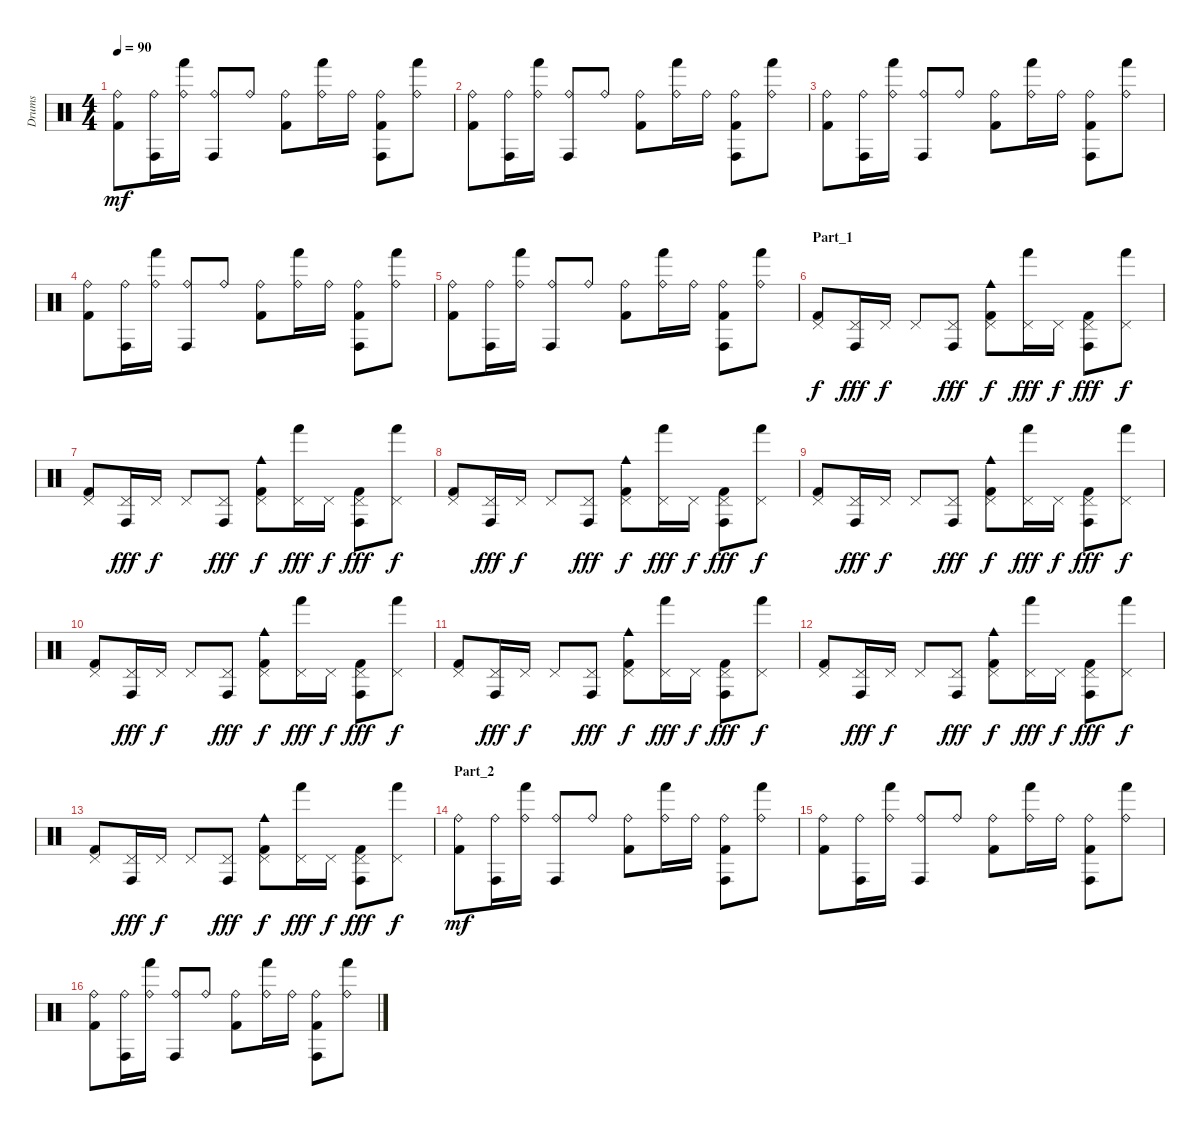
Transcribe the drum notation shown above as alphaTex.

\track (" Drums" " Drums") {instrument percussion}
\staff {score}
\articulation defaults
\ts (4 4)
\tempo 90
\clef neutral
\ks c
("Ride (bell)" "Kick (hit) 2").8{dy mf} ("Ride (bell)" "Conga high (hit)").16 ("Ride (bell)" "Hand (hit)").16 ("Ride (bell)" "Conga high (hit)").8 "Ride (bell)".8 ("Ride (bell)" "Kick (hit) 2").8 ("Ride (bell)" "Hand (hit)").16 "Ride (bell)".16 ("Ride (bell)" "Conga high (hit)" "Kick (hit) 2").8 ("Ride (bell)" "Hand (hit)").8 |
("Ride (bell)" "Kick (hit) 2").8 ("Ride (bell)" "Conga high (hit)").16 ("Ride (bell)" "Hand (hit)").16 ("Ride (bell)" "Conga high (hit)").8 "Ride (bell)".8 ("Ride (bell)" "Kick (hit) 2").8 ("Ride (bell)" "Hand (hit)").16 "Ride (bell)".16 ("Ride (bell)" "Conga high (hit)" "Kick (hit) 2").8 ("Ride (bell)" "Hand (hit)").8 |
("Ride (bell)" "Kick (hit) 2").8 ("Ride (bell)" "Conga high (hit)").16 ("Ride (bell)" "Hand (hit)").16 ("Ride (bell)" "Conga high (hit)").8 "Ride (bell)".8 ("Ride (bell)" "Kick (hit) 2").8 ("Ride (bell)" "Hand (hit)").16 "Ride (bell)".16 ("Ride (bell)" "Conga high (hit)" "Kick (hit) 2").8 ("Ride (bell)" "Hand (hit)").8 |
("Ride (bell)" "Kick (hit) 2").8 ("Ride (bell)" "Conga high (hit)").16 ("Ride (bell)" "Hand (hit)").16 ("Ride (bell)" "Conga high (hit)").8 "Ride (bell)".8 ("Ride (bell)" "Kick (hit) 2").8 ("Ride (bell)" "Hand (hit)").16 "Ride (bell)".16 ("Ride (bell)" "Conga high (hit)" "Kick (hit) 2").8 ("Ride (bell)" "Hand (hit)").8 |
("Ride (bell)" "Kick (hit) 2").8 ("Ride (bell)" "Conga high (hit)").16 ("Ride (bell)" "Hand (hit)").16 ("Ride (bell)" "Conga high (hit)").8 "Ride (bell)".8 ("Ride (bell)" "Kick (hit) 2").8 ("Ride (bell)" "Hand (hit)").16 "Ride (bell)".16 ("Ride (bell)" "Conga high (hit)" "Kick (hit) 2").8 ("Ride (bell)" "Hand (hit)").8 |
\section ("" "Part_1")
("Pedal Hi-Hat (hit)" "Kick (hit) 2").8{dy f} ("Pedal Hi-Hat (hit)" "Conga high (hit)").16{dy fff} "Pedal Hi-Hat (hit)".16{dy f} "Pedal Hi-Hat (hit)".8 ("Pedal Hi-Hat (hit)" "Conga high (hit)").8{dy fff} ("Pedal Hi-Hat (hit)" "Cowbell medium (hit)" "Kick (hit) 2").8{dy f} ("Pedal Hi-Hat (hit)" "Hand (hit)").16{dy fff} "Pedal Hi-Hat (hit)".16{dy f} ("Pedal Hi-Hat (hit)" "Conga high (hit)" "Kick (hit) 2").8{dy fff} ("Pedal Hi-Hat (hit)" "Hand (hit)").8{dy f} |
("Pedal Hi-Hat (hit)" "Kick (hit) 2").8 ("Pedal Hi-Hat (hit)" "Conga high (hit)").16{dy fff} "Pedal Hi-Hat (hit)".16{dy f} "Pedal Hi-Hat (hit)".8 ("Pedal Hi-Hat (hit)" "Conga high (hit)").8{dy fff} ("Pedal Hi-Hat (hit)" "Cowbell medium (hit)" "Kick (hit) 2").8{dy f} ("Pedal Hi-Hat (hit)" "Hand (hit)").16{dy fff} "Pedal Hi-Hat (hit)".16{dy f} ("Pedal Hi-Hat (hit)" "Conga high (hit)" "Kick (hit) 2").8{dy fff} ("Pedal Hi-Hat (hit)" "Hand (hit)").8{dy f} |
("Pedal Hi-Hat (hit)" "Kick (hit) 2").8 ("Pedal Hi-Hat (hit)" "Conga high (hit)").16{dy fff} "Pedal Hi-Hat (hit)".16{dy f} "Pedal Hi-Hat (hit)".8 ("Pedal Hi-Hat (hit)" "Conga high (hit)").8{dy fff} ("Pedal Hi-Hat (hit)" "Cowbell medium (hit)" "Kick (hit) 2").8{dy f} ("Pedal Hi-Hat (hit)" "Hand (hit)").16{dy fff} "Pedal Hi-Hat (hit)".16{dy f} ("Pedal Hi-Hat (hit)" "Conga high (hit)" "Kick (hit) 2").8{dy fff} ("Pedal Hi-Hat (hit)" "Hand (hit)").8{dy f} |
("Pedal Hi-Hat (hit)" "Kick (hit) 2").8 ("Pedal Hi-Hat (hit)" "Conga high (hit)").16{dy fff} "Pedal Hi-Hat (hit)".16{dy f} "Pedal Hi-Hat (hit)".8 ("Pedal Hi-Hat (hit)" "Conga high (hit)").8{dy fff} ("Pedal Hi-Hat (hit)" "Cowbell medium (hit)" "Kick (hit) 2").8{dy f} ("Pedal Hi-Hat (hit)" "Hand (hit)").16{dy fff} "Pedal Hi-Hat (hit)".16{dy f} ("Pedal Hi-Hat (hit)" "Conga high (hit)" "Kick (hit) 2").8{dy fff} ("Pedal Hi-Hat (hit)" "Hand (hit)").8{dy f} |
("Pedal Hi-Hat (hit)" "Kick (hit) 2").8 ("Pedal Hi-Hat (hit)" "Conga high (hit)").16{dy fff} "Pedal Hi-Hat (hit)".16{dy f} "Pedal Hi-Hat (hit)".8 ("Pedal Hi-Hat (hit)" "Conga high (hit)").8{dy fff} ("Pedal Hi-Hat (hit)" "Cowbell medium (hit)" "Kick (hit) 2").8{dy f} ("Pedal Hi-Hat (hit)" "Hand (hit)").16{dy fff} "Pedal Hi-Hat (hit)".16{dy f} ("Pedal Hi-Hat (hit)" "Conga high (hit)" "Kick (hit) 2").8{dy fff} ("Pedal Hi-Hat (hit)" "Hand (hit)").8{dy f} |
("Pedal Hi-Hat (hit)" "Kick (hit) 2").8 ("Pedal Hi-Hat (hit)" "Conga high (hit)").16{dy fff} "Pedal Hi-Hat (hit)".16{dy f} "Pedal Hi-Hat (hit)".8 ("Pedal Hi-Hat (hit)" "Conga high (hit)").8{dy fff} ("Pedal Hi-Hat (hit)" "Cowbell medium (hit)" "Kick (hit) 2").8{dy f} ("Pedal Hi-Hat (hit)" "Hand (hit)").16{dy fff} "Pedal Hi-Hat (hit)".16{dy f} ("Pedal Hi-Hat (hit)" "Conga high (hit)" "Kick (hit) 2").8{dy fff} ("Pedal Hi-Hat (hit)" "Hand (hit)").8{dy f} |
("Pedal Hi-Hat (hit)" "Kick (hit) 2").8 ("Pedal Hi-Hat (hit)" "Conga high (hit)").16{dy fff} "Pedal Hi-Hat (hit)".16{dy f} "Pedal Hi-Hat (hit)".8 ("Pedal Hi-Hat (hit)" "Conga high (hit)").8{dy fff} ("Pedal Hi-Hat (hit)" "Cowbell medium (hit)" "Kick (hit) 2").8{dy f} ("Pedal Hi-Hat (hit)" "Hand (hit)").16{dy fff} "Pedal Hi-Hat (hit)".16{dy f} ("Pedal Hi-Hat (hit)" "Conga high (hit)" "Kick (hit) 2").8{dy fff} ("Pedal Hi-Hat (hit)" "Hand (hit)").8{dy f} |
("Pedal Hi-Hat (hit)" "Kick (hit) 2").8 ("Pedal Hi-Hat (hit)" "Conga high (hit)").16{dy fff} "Pedal Hi-Hat (hit)".16{dy f} "Pedal Hi-Hat (hit)".8 ("Pedal Hi-Hat (hit)" "Conga high (hit)").8{dy fff} ("Pedal Hi-Hat (hit)" "Cowbell medium (hit)" "Kick (hit) 2").8{dy f} ("Pedal Hi-Hat (hit)" "Hand (hit)").16{dy fff} "Pedal Hi-Hat (hit)".16{dy f} ("Pedal Hi-Hat (hit)" "Conga high (hit)" "Kick (hit) 2").8{dy fff} ("Pedal Hi-Hat (hit)" "Hand (hit)").8{dy f} |
\section ("" "Part_2")
("Ride (bell)" "Kick (hit) 2").8{dy mf} ("Ride (bell)" "Conga high (hit)").16 ("Ride (bell)" "Hand (hit)").16 ("Ride (bell)" "Conga high (hit)").8 "Ride (bell)".8 ("Ride (bell)" "Kick (hit) 2").8 ("Ride (bell)" "Hand (hit)").16 "Ride (bell)".16 ("Ride (bell)" "Conga high (hit)" "Kick (hit) 2").8 ("Ride (bell)" "Hand (hit)").8 |
("Ride (bell)" "Kick (hit) 2").8 ("Ride (bell)" "Conga high (hit)").16 ("Ride (bell)" "Hand (hit)").16 ("Ride (bell)" "Conga high (hit)").8 "Ride (bell)".8 ("Ride (bell)" "Kick (hit) 2").8 ("Ride (bell)" "Hand (hit)").16 "Ride (bell)".16 ("Ride (bell)" "Conga high (hit)" "Kick (hit) 2").8 ("Ride (bell)" "Hand (hit)").8 |
("Ride (bell)" "Kick (hit) 2").8 ("Ride (bell)" "Conga high (hit)").16 ("Ride (bell)" "Hand (hit)").16 ("Ride (bell)" "Conga high (hit)").8 "Ride (bell)".8 ("Ride (bell)" "Kick (hit) 2").8 ("Ride (bell)" "Hand (hit)").16 "Ride (bell)".16 ("Ride (bell)" "Conga high (hit)" "Kick (hit) 2").8 ("Ride (bell)" "Hand (hit)").8
